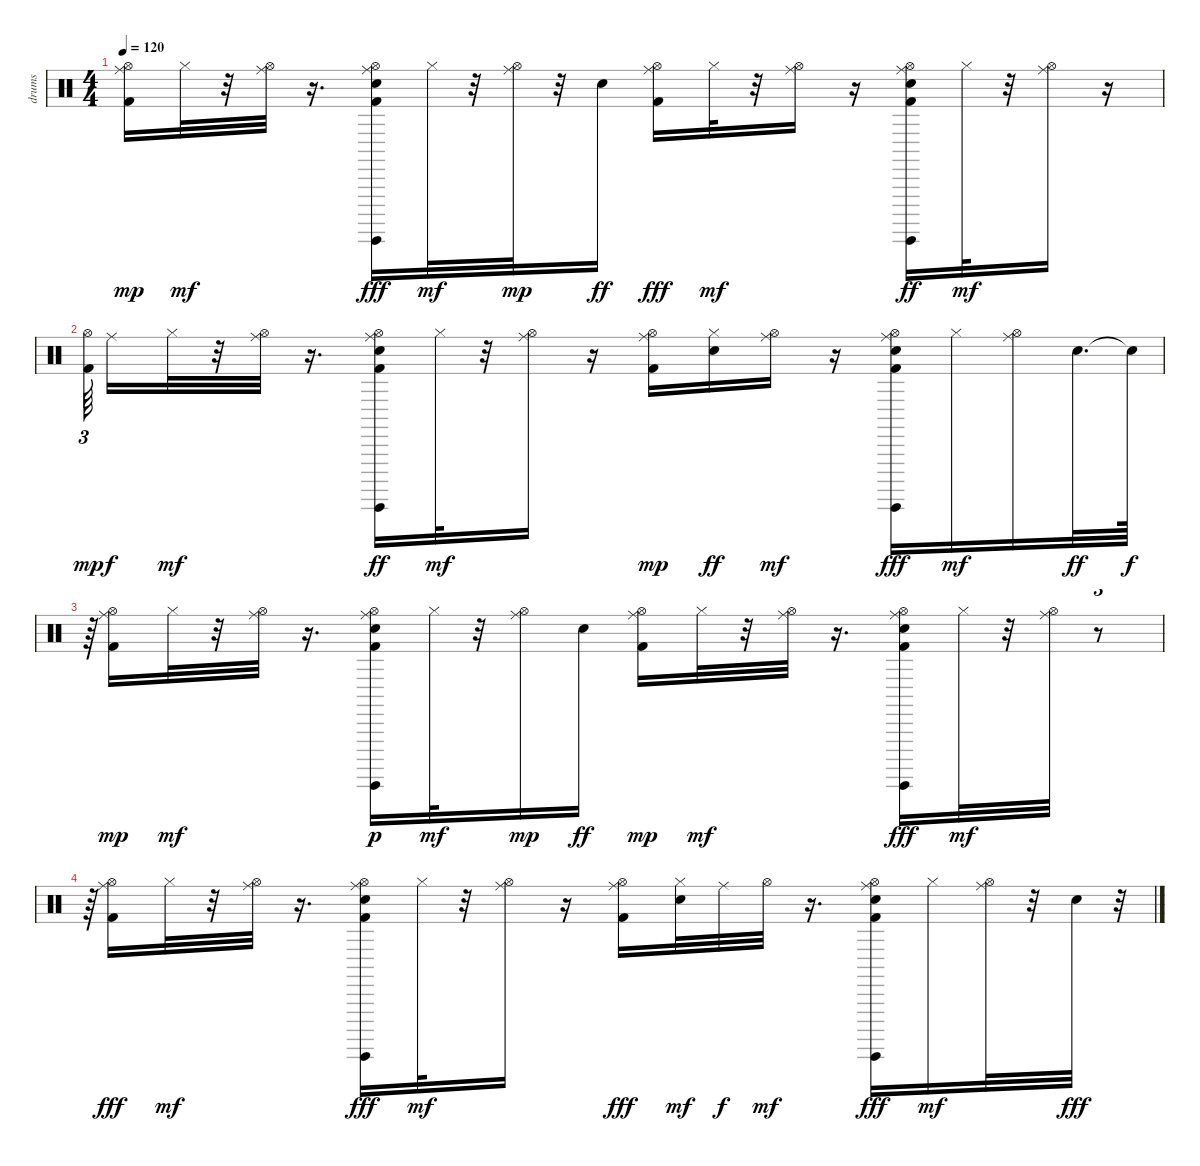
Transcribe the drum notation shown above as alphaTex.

\track ("drums                               " "drums     ") {instrument percussion}
\staff {score}
\articulation defaults
\ts (4 4)
\tempo 120
\clef neutral
\ks c
("Kick (hit) 2" "Ride (middle)" "Hi-Hat (open)").16{dy mp} "Hi-Hat (closed)".32{dy mf} r.32 ("Ride (middle)" "Hi-Hat (open)").32 r.16{d} ("Guiro (hit)" "Hi-Hat (open)" "Electric Snare (hit)" "Kick (hit) 2" "Ride (middle)").16{dy fff} "Hi-Hat (closed)".32{dy mf} r.32 ("Ride (middle)" "Hi-Hat (open)").32{dy mp} r.32 "Electric Snare (hit)".16{dy ff} ("Hi-Hat (open)" "Kick (hit) 2" "Ride (middle)").16{dy fff} "Hi-Hat (closed)".32{dy mf} r.32 ("Ride (middle)" "Hi-Hat (open)").16 r.16 ("Hi-Hat (open)" "Kick (hit) 2" "Electric Snare (hit)" "Guiro (hit)" "Ride (middle)").16{dy ff} "Hi-Hat (closed)".32{dy mf} r.32 ("Hi-Hat (open)" "Ride (middle)").16 r.16 |
("Kick (hit) 2" "Hi-Hat (open)").64{tu (3 2) dy mp beam splitsecondary} "Ride (middle)".16{dy f} "Hi-Hat (closed)".32{dy mf} r.32 ("Hi-Hat (open)" "Ride (middle)").32 r.16{d} ("Hi-Hat (open)" "Kick (hit) 2" "Electric Snare (hit)" "Guiro (hit)" "Ride (middle)").16{dy ff} "Hi-Hat (closed)".32{dy mf} r.32 ("Hi-Hat (open)" "Ride (middle)").16 r.16 ("Ride (middle)" "Kick (hit) 2" "Hi-Hat (open)").16{dy mp} ("Hi-Hat (closed)" "Electric Snare (hit)").16{dy ff} ("Hi-Hat (open)" "Ride (middle)").16{dy mf} r.16 ("Hi-Hat (open)" "Electric Snare (hit)" "Guiro (hit)" "Kick (hit) 2" "Ride (middle)").16{dy fff} "Hi-Hat (closed)".16{dy mf} ("Hi-Hat (open)" "Ride (middle)").16 "Electric Snare (hit)".32{d dy ff} "Snare (hit)"{t}.64{dy f} |
r.64{tu (3 2)} ("Kick (hit) 2" "Hi-Hat (open)" "Ride (middle)").16{dy mp} "Hi-Hat (closed)".32{dy mf} r.32 ("Hi-Hat (open)" "Ride (middle)").32 r.16{d} ("Electric Snare (hit)" "Kick (hit) 2" "Guiro (hit)" "Hi-Hat (open)" "Ride (middle)").16{dy p} "Hi-Hat (closed)".32{dy mf} r.32 ("Hi-Hat (open)" "Ride (middle)").16{dy mp} "Electric Snare (hit)".16{dy ff} ("Ride (middle)" "Kick (hit) 2" "Hi-Hat (open)").16{dy mp} "Hi-Hat (closed)".32{dy mf} r.32 ("Hi-Hat (open)" "Ride (middle)").32 r.16{d} ("Guiro (hit)" "Hi-Hat (open)" "Electric Snare (hit)" "Kick (hit) 2" "Ride (middle)").16{dy fff} "Hi-Hat (closed)".32{dy mf} r.32 ("Hi-Hat (open)" "Ride (middle)").32 r.8{tu (3 2)} |
r.64{tu (3 2)} ("Hi-Hat (open)" "Kick (hit) 2" "Ride (middle)").16{dy fff} "Hi-Hat (closed)".32{dy mf} r.32 ("Ride (middle)" "Hi-Hat (open)").32 r.16{d} ("Hi-Hat (open)" "Kick (hit) 2" "Guiro (hit)" "Electric Snare (hit)" "Ride (middle)").16{dy fff} "Hi-Hat (closed)".32{dy mf} r.32 ("Ride (middle)" "Hi-Hat (open)").16 r.16 ("Ride (middle)" "Hi-Hat (open)" "Kick (hit) 2").16{dy fff} ("Electric Snare (hit)" "Hi-Hat (closed)").32{dy mf} "Ride (middle)".32{dy f} "Hi-Hat (open)".32{dy mf} r.16{d} ("Ride (middle)" "Hi-Hat (open)" "Guiro (hit)" "Electric Snare (hit)" "Kick (hit) 2").16{dy fff} "Hi-Hat (closed)".16{dy mf} ("Ride (middle)" "Hi-Hat (open)").32 r.32 "Electric Snare (hit)".32{dy fff} r.32{tu (3 2)}
